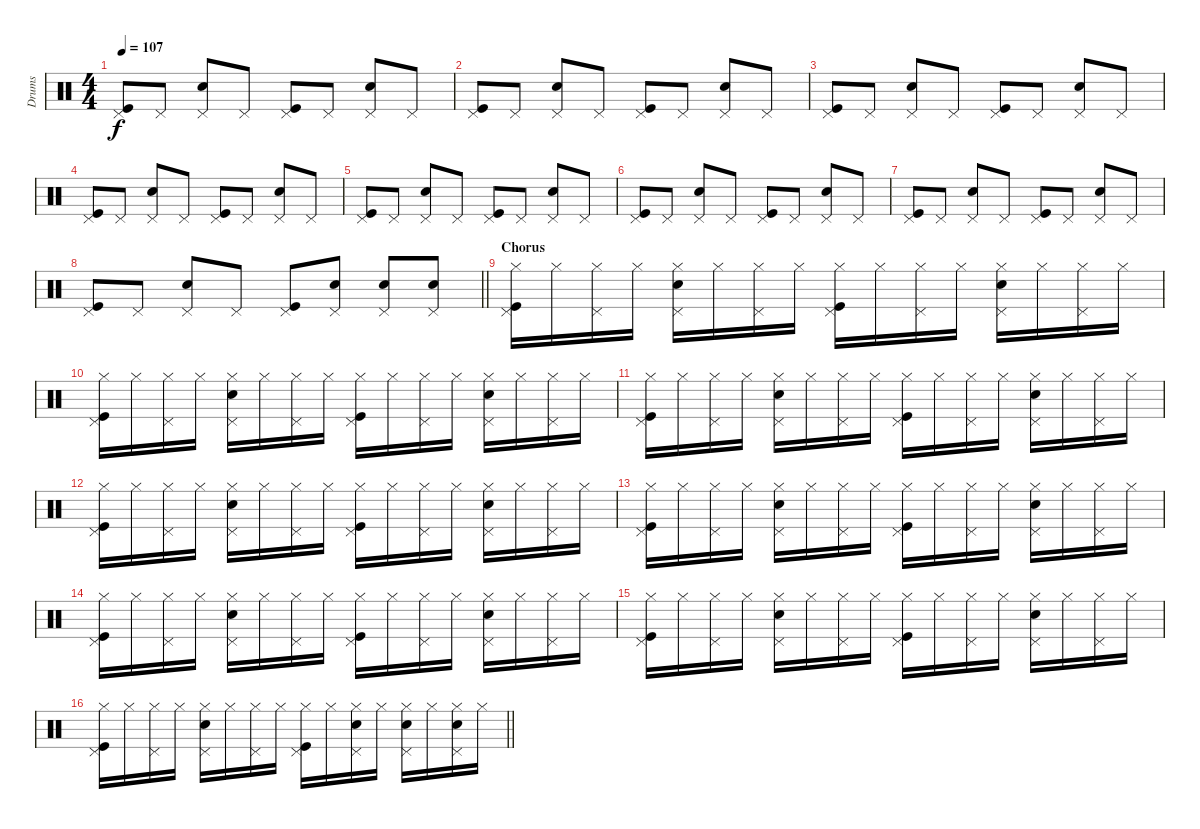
\track ("Drums" "Drums") {instrument percussion}
\staff {score}
\articulation defaults
\ts (4 4)
\tempo 107
\clef neutral
\ks c
("Kick (hit)" "Pedal Hi-Hat (hit)").8{dy f} "Pedal Hi-Hat (hit)".8 ("Snare (hit) 2" "Pedal Hi-Hat (hit)").8 "Pedal Hi-Hat (hit)".8 ("Kick (hit)" "Pedal Hi-Hat (hit)").8 "Pedal Hi-Hat (hit)".8 ("Snare (hit) 2" "Pedal Hi-Hat (hit)").8 "Pedal Hi-Hat (hit)".8 |
("Kick (hit)" "Pedal Hi-Hat (hit)").8 "Pedal Hi-Hat (hit)".8 ("Snare (hit) 2" "Pedal Hi-Hat (hit)").8 "Pedal Hi-Hat (hit)".8 ("Kick (hit)" "Pedal Hi-Hat (hit)").8 "Pedal Hi-Hat (hit)".8 ("Snare (hit) 2" "Pedal Hi-Hat (hit)").8 "Pedal Hi-Hat (hit)".8 |
("Kick (hit)" "Pedal Hi-Hat (hit)").8 "Pedal Hi-Hat (hit)".8 ("Snare (hit) 2" "Pedal Hi-Hat (hit)").8 "Pedal Hi-Hat (hit)".8 ("Kick (hit)" "Pedal Hi-Hat (hit)").8 "Pedal Hi-Hat (hit)".8 ("Snare (hit) 2" "Pedal Hi-Hat (hit)").8 "Pedal Hi-Hat (hit)".8 |
("Kick (hit)" "Pedal Hi-Hat (hit)").8 "Pedal Hi-Hat (hit)".8 ("Snare (hit) 2" "Pedal Hi-Hat (hit)").8 "Pedal Hi-Hat (hit)".8 ("Kick (hit)" "Pedal Hi-Hat (hit)").8 "Pedal Hi-Hat (hit)".8 ("Snare (hit) 2" "Pedal Hi-Hat (hit)").8 "Pedal Hi-Hat (hit)".8 |
("Kick (hit)" "Pedal Hi-Hat (hit)").8 "Pedal Hi-Hat (hit)".8 ("Snare (hit) 2" "Pedal Hi-Hat (hit)").8 "Pedal Hi-Hat (hit)".8 ("Kick (hit)" "Pedal Hi-Hat (hit)").8 "Pedal Hi-Hat (hit)".8 ("Snare (hit) 2" "Pedal Hi-Hat (hit)").8 "Pedal Hi-Hat (hit)".8 |
("Kick (hit)" "Pedal Hi-Hat (hit)").8 "Pedal Hi-Hat (hit)".8 ("Snare (hit) 2" "Pedal Hi-Hat (hit)").8 "Pedal Hi-Hat (hit)".8 ("Kick (hit)" "Pedal Hi-Hat (hit)").8 "Pedal Hi-Hat (hit)".8 ("Snare (hit) 2" "Pedal Hi-Hat (hit)").8 "Pedal Hi-Hat (hit)".8 |
("Kick (hit)" "Pedal Hi-Hat (hit)").8 "Pedal Hi-Hat (hit)".8 ("Snare (hit) 2" "Pedal Hi-Hat (hit)").8 "Pedal Hi-Hat (hit)".8 ("Kick (hit)" "Pedal Hi-Hat (hit)").8 "Pedal Hi-Hat (hit)".8 ("Snare (hit) 2" "Pedal Hi-Hat (hit)").8 "Pedal Hi-Hat (hit)".8 |
\barLineRight lightlight
("Kick (hit)" "Pedal Hi-Hat (hit)").8 "Pedal Hi-Hat (hit)".8 ("Snare (hit) 2" "Pedal Hi-Hat (hit)").8 "Pedal Hi-Hat (hit)".8 ("Kick (hit)" "Pedal Hi-Hat (hit)").8 ("Snare (hit) 2" "Pedal Hi-Hat (hit)").8 ("Snare (hit) 2" "Pedal Hi-Hat (hit)").8 ("Snare (hit) 2" "Pedal Hi-Hat (hit)").8 |
\section ("" "Chorus")
("Kick (hit)" "Pedal Hi-Hat (hit)" "Hi-Hat (closed)").16 "Hi-Hat (closed)".16 ("Pedal Hi-Hat (hit)" "Hi-Hat (closed)").16 "Hi-Hat (closed)".16 ("Snare (hit) 2" "Pedal Hi-Hat (hit)" "Hi-Hat (closed)").16 "Hi-Hat (closed)".16 ("Pedal Hi-Hat (hit)" "Hi-Hat (closed)").16 "Hi-Hat (closed)".16 ("Kick (hit)" "Pedal Hi-Hat (hit)" "Hi-Hat (closed)").16 "Hi-Hat (closed)".16 ("Pedal Hi-Hat (hit)" "Hi-Hat (closed)").16 "Hi-Hat (closed)".16 ("Snare (hit) 2" "Pedal Hi-Hat (hit)" "Hi-Hat (closed)").16 "Hi-Hat (closed)".16 ("Pedal Hi-Hat (hit)" "Hi-Hat (closed)").16 "Hi-Hat (closed)".16 |
("Kick (hit)" "Pedal Hi-Hat (hit)" "Hi-Hat (closed)").16 "Hi-Hat (closed)".16 ("Pedal Hi-Hat (hit)" "Hi-Hat (closed)").16 "Hi-Hat (closed)".16 ("Snare (hit) 2" "Pedal Hi-Hat (hit)" "Hi-Hat (closed)").16 "Hi-Hat (closed)".16 ("Pedal Hi-Hat (hit)" "Hi-Hat (closed)").16 "Hi-Hat (closed)".16 ("Kick (hit)" "Pedal Hi-Hat (hit)" "Hi-Hat (closed)").16 "Hi-Hat (closed)".16 ("Pedal Hi-Hat (hit)" "Hi-Hat (closed)").16 "Hi-Hat (closed)".16 ("Snare (hit) 2" "Pedal Hi-Hat (hit)" "Hi-Hat (closed)").16 "Hi-Hat (closed)".16 ("Pedal Hi-Hat (hit)" "Hi-Hat (closed)").16 "Hi-Hat (closed)".16 |
("Kick (hit)" "Pedal Hi-Hat (hit)" "Hi-Hat (closed)").16 "Hi-Hat (closed)".16 ("Pedal Hi-Hat (hit)" "Hi-Hat (closed)").16 "Hi-Hat (closed)".16 ("Snare (hit) 2" "Pedal Hi-Hat (hit)" "Hi-Hat (closed)").16 "Hi-Hat (closed)".16 ("Pedal Hi-Hat (hit)" "Hi-Hat (closed)").16 "Hi-Hat (closed)".16 ("Kick (hit)" "Pedal Hi-Hat (hit)" "Hi-Hat (closed)").16 "Hi-Hat (closed)".16 ("Pedal Hi-Hat (hit)" "Hi-Hat (closed)").16 "Hi-Hat (closed)".16 ("Snare (hit) 2" "Pedal Hi-Hat (hit)" "Hi-Hat (closed)").16 "Hi-Hat (closed)".16 ("Pedal Hi-Hat (hit)" "Hi-Hat (closed)").16 "Hi-Hat (closed)".16 |
("Kick (hit)" "Pedal Hi-Hat (hit)" "Hi-Hat (closed)").16 "Hi-Hat (closed)".16 ("Pedal Hi-Hat (hit)" "Hi-Hat (closed)").16 "Hi-Hat (closed)".16 ("Snare (hit) 2" "Pedal Hi-Hat (hit)" "Hi-Hat (closed)").16 "Hi-Hat (closed)".16 ("Pedal Hi-Hat (hit)" "Hi-Hat (closed)").16 "Hi-Hat (closed)".16 ("Kick (hit)" "Pedal Hi-Hat (hit)" "Hi-Hat (closed)").16 "Hi-Hat (closed)".16 ("Pedal Hi-Hat (hit)" "Hi-Hat (closed)").16 "Hi-Hat (closed)".16 ("Snare (hit) 2" "Pedal Hi-Hat (hit)" "Hi-Hat (closed)").16 "Hi-Hat (closed)".16 ("Pedal Hi-Hat (hit)" "Hi-Hat (closed)").16 "Hi-Hat (closed)".16 |
("Kick (hit)" "Pedal Hi-Hat (hit)" "Hi-Hat (closed)").16 "Hi-Hat (closed)".16 ("Pedal Hi-Hat (hit)" "Hi-Hat (closed)").16 "Hi-Hat (closed)".16 ("Snare (hit) 2" "Pedal Hi-Hat (hit)" "Hi-Hat (closed)").16 "Hi-Hat (closed)".16 ("Pedal Hi-Hat (hit)" "Hi-Hat (closed)").16 "Hi-Hat (closed)".16 ("Kick (hit)" "Pedal Hi-Hat (hit)" "Hi-Hat (closed)").16 "Hi-Hat (closed)".16 ("Pedal Hi-Hat (hit)" "Hi-Hat (closed)").16 "Hi-Hat (closed)".16 ("Snare (hit) 2" "Pedal Hi-Hat (hit)" "Hi-Hat (closed)").16 "Hi-Hat (closed)".16 ("Pedal Hi-Hat (hit)" "Hi-Hat (closed)").16 "Hi-Hat (closed)".16 |
("Kick (hit)" "Pedal Hi-Hat (hit)" "Hi-Hat (closed)").16 "Hi-Hat (closed)".16 ("Pedal Hi-Hat (hit)" "Hi-Hat (closed)").16 "Hi-Hat (closed)".16 ("Snare (hit) 2" "Pedal Hi-Hat (hit)" "Hi-Hat (closed)").16 "Hi-Hat (closed)".16 ("Pedal Hi-Hat (hit)" "Hi-Hat (closed)").16 "Hi-Hat (closed)".16 ("Kick (hit)" "Pedal Hi-Hat (hit)" "Hi-Hat (closed)").16 "Hi-Hat (closed)".16 ("Pedal Hi-Hat (hit)" "Hi-Hat (closed)").16 "Hi-Hat (closed)".16 ("Snare (hit) 2" "Pedal Hi-Hat (hit)" "Hi-Hat (closed)").16 "Hi-Hat (closed)".16 ("Pedal Hi-Hat (hit)" "Hi-Hat (closed)").16 "Hi-Hat (closed)".16 |
("Kick (hit)" "Pedal Hi-Hat (hit)" "Hi-Hat (closed)").16 "Hi-Hat (closed)".16 ("Pedal Hi-Hat (hit)" "Hi-Hat (closed)").16 "Hi-Hat (closed)".16 ("Snare (hit) 2" "Pedal Hi-Hat (hit)" "Hi-Hat (closed)").16 "Hi-Hat (closed)".16 ("Pedal Hi-Hat (hit)" "Hi-Hat (closed)").16 "Hi-Hat (closed)".16 ("Kick (hit)" "Pedal Hi-Hat (hit)" "Hi-Hat (closed)").16 "Hi-Hat (closed)".16 ("Pedal Hi-Hat (hit)" "Hi-Hat (closed)").16 "Hi-Hat (closed)".16 ("Snare (hit) 2" "Pedal Hi-Hat (hit)" "Hi-Hat (closed)").16 "Hi-Hat (closed)".16 ("Pedal Hi-Hat (hit)" "Hi-Hat (closed)").16 "Hi-Hat (closed)".16 |
\barLineRight lightlight
("Kick (hit)" "Pedal Hi-Hat (hit)" "Hi-Hat (closed)").16 "Hi-Hat (closed)".16 ("Pedal Hi-Hat (hit)" "Hi-Hat (closed)").16 "Hi-Hat (closed)".16 ("Snare (hit) 2" "Pedal Hi-Hat (hit)" "Hi-Hat (closed)").16 "Hi-Hat (closed)".16 ("Pedal Hi-Hat (hit)" "Hi-Hat (closed)").16 "Hi-Hat (closed)".16 ("Kick (hit)" "Pedal Hi-Hat (hit)" "Hi-Hat (closed)").16 "Hi-Hat (closed)".16 ("Snare (hit) 2" "Pedal Hi-Hat (hit)" "Hi-Hat (closed)").16 "Hi-Hat (closed)".16 ("Snare (hit) 2" "Pedal Hi-Hat (hit)" "Hi-Hat (closed)").16 "Hi-Hat (closed)".16 ("Snare (hit) 2" "Pedal Hi-Hat (hit)" "Hi-Hat (closed)").16 "Hi-Hat (closed)".16
